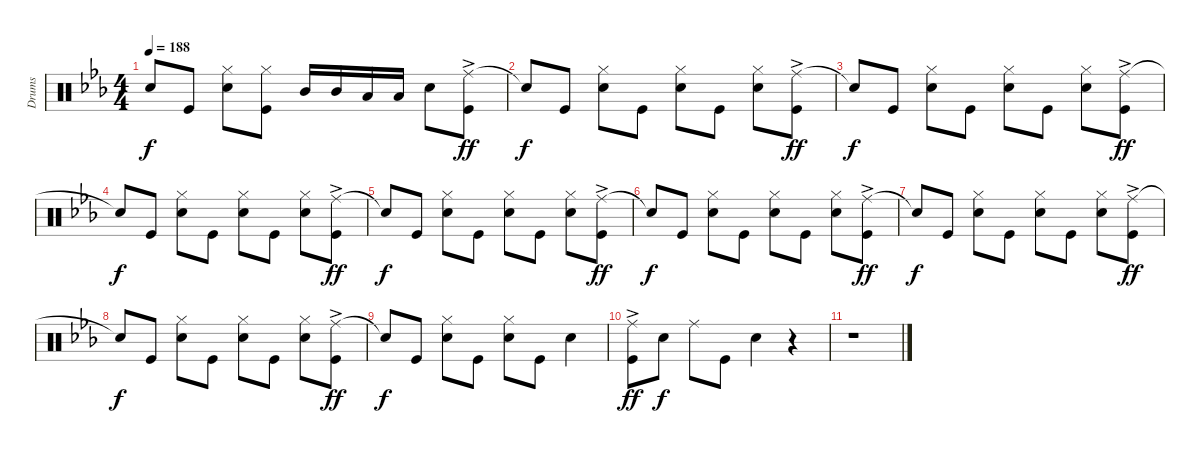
\track ("Drums" "Drums") {instrument percussion}
\staff {score}
\articulation defaults
\ts (4 4)
\tempo 188
\clef neutral
\ks eb "Snare (hit)"{t}.8{dy f} "Kick (hit)".8
("Hi-Hat (closed)" "Snare (hit) 2").8 ("Hi-Hat (closed)" "Kick (hit)").8 "Mid Tom (hit)".16 "Mid Tom (hit)".16 "Low Tom (hit)".16 "Low Tom (hit)".16 "Snare (hit) 2".8 ("Ride (middle)"{ac} "Kick (hit)").8{dy ff} |
"Snare (hit)"{t}.8{dy f} "Kick (hit)".8 ("Hi-Hat (closed)" "Snare (hit) 2").8 "Kick (hit)".8 ("Hi-Hat (closed)" "Snare (hit) 2").8 "Kick (hit)".8 ("Hi-Hat (closed)" "Snare (hit) 2").8 ("Ride (middle)"{ac} "Kick (hit)").8{dy ff} |
"Snare (hit)"{t}.8{dy f} "Kick (hit)".8 ("Hi-Hat (closed)" "Snare (hit) 2").8 "Kick (hit)".8 ("Hi-Hat (closed)" "Snare (hit) 2").8 "Kick (hit)".8 ("Hi-Hat (closed)" "Snare (hit) 2").8 ("Ride (middle)"{ac} "Kick (hit)").8{dy ff} |
"Snare (hit)"{t}.8{dy f} "Kick (hit)".8 ("Hi-Hat (closed)" "Snare (hit) 2").8 "Kick (hit)".8 ("Hi-Hat (closed)" "Snare (hit) 2").8 "Kick (hit)".8 ("Hi-Hat (closed)" "Snare (hit) 2").8 ("Ride (middle)"{ac} "Kick (hit)").8{dy ff} |
"Snare (hit)"{t}.8{dy f} "Kick (hit)".8 ("Hi-Hat (closed)" "Snare (hit) 2").8 "Kick (hit)".8 ("Hi-Hat (closed)" "Snare (hit) 2").8 "Kick (hit)".8 ("Hi-Hat (closed)" "Snare (hit) 2").8 ("Ride (middle)"{ac} "Kick (hit)").8{dy ff} |
"Snare (hit)"{t}.8{dy f} "Kick (hit)".8 ("Hi-Hat (closed)" "Snare (hit) 2").8 "Kick (hit)".8 ("Hi-Hat (closed)" "Snare (hit) 2").8 "Kick (hit)".8 ("Hi-Hat (closed)" "Snare (hit) 2").8 ("Ride (middle)"{ac} "Kick (hit)").8{dy ff} |
"Snare (hit)"{t}.8{dy f} "Kick (hit)".8 ("Hi-Hat (closed)" "Snare (hit) 2").8 "Kick (hit)".8 ("Hi-Hat (closed)" "Snare (hit) 2").8 "Kick (hit)".8 ("Hi-Hat (closed)" "Snare (hit) 2").8 ("Ride (middle)"{ac} "Kick (hit)").8{dy ff} |
"Snare (hit)"{t}.8{dy f} "Kick (hit)".8 ("Hi-Hat (closed)" "Snare (hit) 2").8 "Kick (hit)".8 ("Hi-Hat (closed)" "Snare (hit) 2").8 "Kick (hit)".8 ("Hi-Hat (closed)" "Snare (hit) 2").8 ("Ride (middle)"{ac} "Kick (hit)").8{dy ff} |
"Snare (hit)"{t}.8{dy f} "Kick (hit)".8 ("Hi-Hat (closed)" "Snare (hit) 2").8 "Kick (hit)".8 ("Hi-Hat (closed)" "Snare (hit) 2").8 "Kick (hit)".8 "Snare (hit) 2".4 |
("Ride (middle)"{ac} "Kick (hit)").8{dy ff} "Snare (hit) 2".8{dy f} "Ride (middle)".8 "Kick (hit)".8 "Snare (hit) 2".4 r.4 |
r.1
